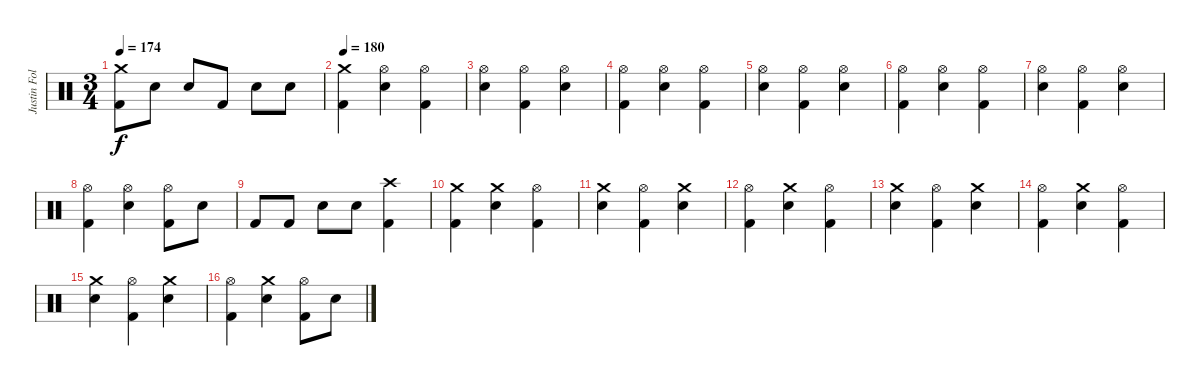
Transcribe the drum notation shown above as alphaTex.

\track ("Justin Foley" "Justin Fol") {instrument percussion}
\staff {score}
\articulation defaults
\ts (3 4)
\tempo 174
\clef neutral
\ks c
("Crash medium (hit)" "Kick (hit) 2").8{dy f} "Electric Snare (hit)".8 "Electric Snare (hit)".8 "Kick (hit) 2".8 "Electric Snare (hit)".8 "Electric Snare (hit)".8 |
\tempo 180
("Crash medium (hit)" "Kick (hit) 2").4 ("Hi-Hat (open)" "Electric Snare (hit)").4 ("Hi-Hat (open)" "Kick (hit) 2").4 |
("Hi-Hat (open)" "Electric Snare (hit)").4 ("Hi-Hat (open)" "Kick (hit) 2").4 ("Hi-Hat (open)" "Electric Snare (hit)").4 |
("Hi-Hat (open)" "Kick (hit) 2").4 ("Hi-Hat (open)" "Electric Snare (hit)").4 ("Hi-Hat (open)" "Kick (hit) 2").4 |
("Hi-Hat (open)" "Electric Snare (hit)").4 ("Hi-Hat (open)" "Kick (hit) 2").4 ("Hi-Hat (open)" "Electric Snare (hit)").4 |
("Hi-Hat (open)" "Kick (hit) 2").4 ("Hi-Hat (open)" "Electric Snare (hit)").4 ("Hi-Hat (open)" "Kick (hit) 2").4 |
("Hi-Hat (open)" "Electric Snare (hit)").4 ("Hi-Hat (open)" "Kick (hit) 2").4 ("Hi-Hat (open)" "Electric Snare (hit)").4 |
("Hi-Hat (open)" "Kick (hit) 2").4 ("Hi-Hat (open)" "Electric Snare (hit)").4 ("Hi-Hat (open)" "Kick (hit) 2").8 "Electric Snare (hit)".8 |
"Kick (hit) 2".8 "Kick (hit) 2".8 "Electric Snare (hit)".8 "Electric Snare (hit)".8 ("Crash high (hit)" "Kick (hit) 2").4 |
("Crash medium (hit)" "Kick (hit) 2").4 ("Crash medium (hit)" "Electric Snare (hit)").4 ("Hi-Hat (open)" "Kick (hit) 2").4 |
("Crash medium (hit)" "Electric Snare (hit)").4 ("Hi-Hat (open)" "Kick (hit) 2").4 ("Crash medium (hit)" "Electric Snare (hit)").4 |
("Hi-Hat (open)" "Kick (hit) 2").4 ("Crash medium (hit)" "Electric Snare (hit)").4 ("Hi-Hat (open)" "Kick (hit) 2").4 |
("Crash medium (hit)" "Electric Snare (hit)").4 ("Hi-Hat (open)" "Kick (hit) 2").4 ("Crash medium (hit)" "Electric Snare (hit)").4 |
("Hi-Hat (open)" "Kick (hit) 2").4 ("Crash medium (hit)" "Electric Snare (hit)").4 ("Hi-Hat (open)" "Kick (hit) 2").4 |
("Crash medium (hit)" "Electric Snare (hit)").4 ("Hi-Hat (open)" "Kick (hit) 2").4 ("Crash medium (hit)" "Electric Snare (hit)").4 |
("Hi-Hat (open)" "Kick (hit) 2").4 ("Crash medium (hit)" "Electric Snare (hit)").4 ("Hi-Hat (open)" "Kick (hit) 2").8 "Electric Snare (hit)".8
